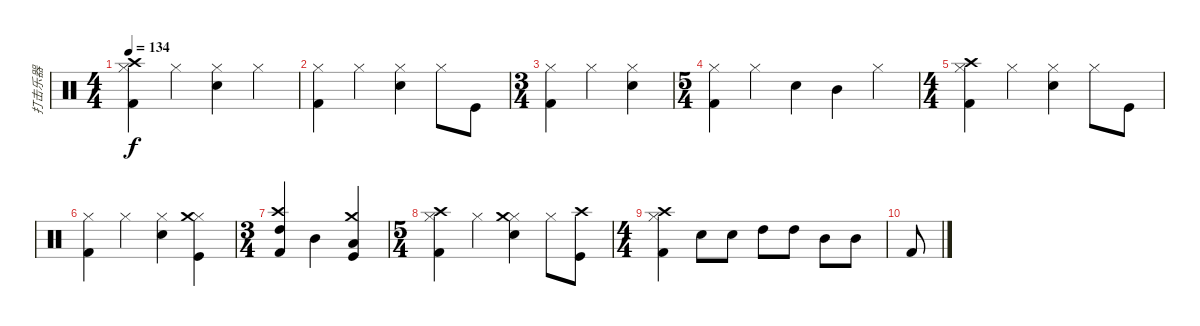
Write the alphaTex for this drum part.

\track ("打击乐器" "打击乐器") {instrument percussion}
\staff {score}
\articulation defaults
\ts (4 4)
\tempo 134
\clef neutral
\ks c
("Hi-Hat (closed)" "Kick (hit) 2" "Crash high (hit)").4{dy f} "Hi-Hat (closed)".4 ("Hi-Hat (closed)" "Snare (hit) 2").4 "Hi-Hat (closed)".4 |
("Hi-Hat (closed)" "Kick (hit) 2").4 "Hi-Hat (closed)".4 ("Hi-Hat (closed)" "Snare (hit) 2").4 "Hi-Hat (closed)".8 "Kick (hit)".8 |
\ts (3 4)
("Hi-Hat (closed)" "Kick (hit) 2").4 "Hi-Hat (closed)".4 ("Hi-Hat (closed)" "Snare (hit) 2").4 |
\ts (5 4)
("Hi-Hat (closed)" "Kick (hit) 2").4 "Hi-Hat (closed)".4 "Snare (hit) 2".4 "Mid Tom (hit)".4 "Hi-Hat (closed)".4 |
\ts (4 4)
("Hi-Hat (closed)" "Kick (hit) 2" "Crash high (hit)").4 "Hi-Hat (closed)".4 ("Hi-Hat (closed)" "Snare (hit) 2").4 "Hi-Hat (closed)".8 "Kick (hit)".8 |
("Hi-Hat (closed)" "Kick (hit) 2").4 "Hi-Hat (closed)".4 ("Hi-Hat (closed)" "Snare (hit) 2").4 ("Kick (hit)" "Hi-Hat (closed)" "Crash medium (hit)").4 |
\ts (3 4)
("High Tom (hit)" "Kick (hit) 2" "Crash high (hit)").4 "Mid Tom (hit)".4 ("Low Tom (hit)" "Kick (hit)" "Crash medium (hit)").4 |
\ts (5 4)
("Hi-Hat (closed)" "Kick (hit) 2" "Crash high (hit)").4 "Hi-Hat (closed)".4 ("Hi-Hat (closed)" "Snare (hit) 2" "Crash medium (hit)").4 "Hi-Hat (closed)".8 ("Kick (hit)" "Crash high (hit)").8 |
\ts (4 4)
("Hi-Hat (closed)" "Kick (hit) 2" "Crash high (hit)").4 "Snare (hit) 2".8 "Snare (hit) 2".8 "High Tom (hit)".8 "High Tom (hit)".8 "Mid Tom (hit)".8 "Mid Tom (hit)".8 |
"Kick (hit) 2".8
